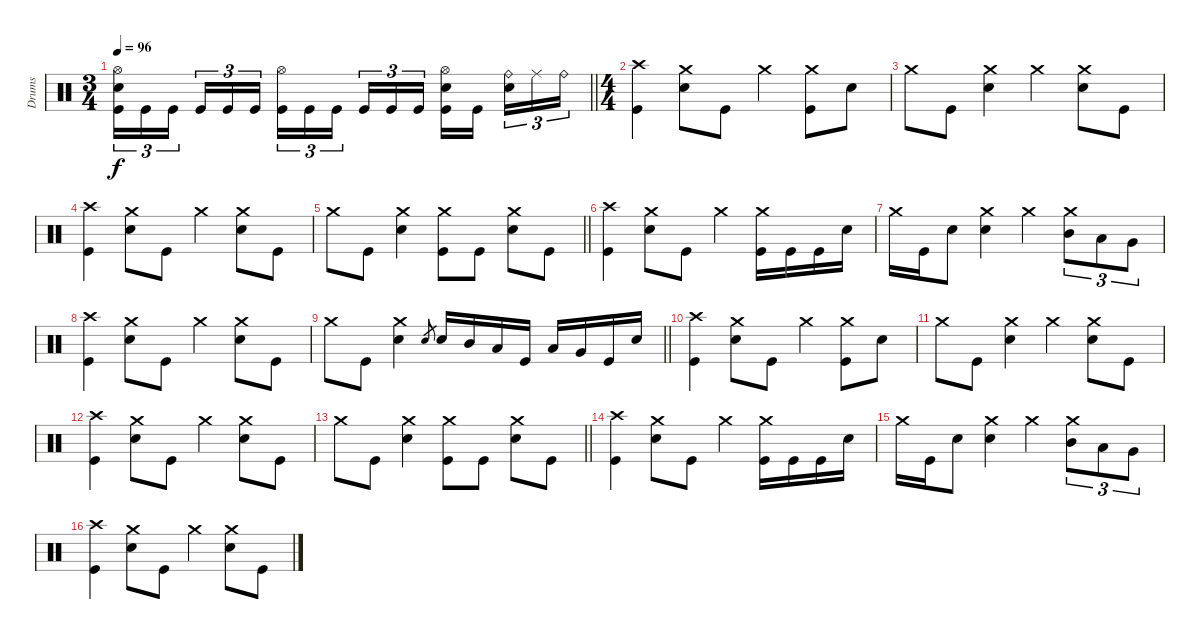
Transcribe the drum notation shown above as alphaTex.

\track ("Drums" "Drums") {instrument percussion}
\staff
\articulation defaults
\ts (3 4)
\tempo 96
\clef neutral
\barLineRight lightlight
\ks c
("Hi-Hat (open)" "Electric Snare (hit)" "Kick (hit)").16{tu (3 2) dy f} "Kick (hit)".16{tu (3 2)} "Kick (hit)".16{tu (3 2) beam splitsecondary} "Kick (hit)".16{tu (3 2)} "Kick (hit)".16{tu (3 2)} "Kick (hit)".16{tu (3 2)} ("Hi-Hat (open)" "Kick (hit)").16{tu (3 2)} "Kick (hit)".16{tu (3 2)} "Kick (hit)".16{tu (3 2) beam splitsecondary} "Kick (hit)".16{tu (3 2)} "Kick (hit)".16{tu (3 2)} "Kick (hit)".16{tu (3 2)} ("Hi-Hat (open)" "Electric Snare (hit)" "Kick (hit)").16 "Kick (hit)".16{beam splitsecondary} ("Ride (bell)" "Electric Snare (hit)").16{tu (3 2)} "Ride (middle)".16{tu (3 2)} "Ride (bell)".16{tu (3 2)} |
\ts (4 4)
\section ("" "")
("Crash high (hit)" "Kick (hit)").4 ("Crash medium (hit)" "Electric Snare (hit)").8 "Kick (hit)".8 "Crash medium (hit)".4 ("Crash medium (hit)" "Kick (hit)").8 "Electric Snare (hit)".8 |
"Crash medium (hit)".8 "Kick (hit)".8 ("Crash medium (hit)" "Electric Snare (hit)").4 "Crash medium (hit)".4 ("Crash medium (hit)" "Electric Snare (hit)").8 "Kick (hit)".8 |
("Crash high (hit)" "Kick (hit)").4 ("Crash medium (hit)" "Electric Snare (hit)").8 "Kick (hit)".8 "Crash medium (hit)".4 ("Crash medium (hit)" "Electric Snare (hit)").8 "Kick (hit)".8 |
\barLineRight lightlight "Crash medium (hit)".8 "Kick (hit)".8
("Crash medium (hit)" "Electric Snare (hit)").4 ("Crash medium (hit)" "Kick (hit)").8 "Kick (hit)".8 ("Crash medium (hit)" "Electric Snare (hit)").8 "Kick (hit)".8 |
("Crash high (hit)" "Kick (hit)").4 ("Crash medium (hit)" "Electric Snare (hit)").8 "Kick (hit)".8 "Crash medium (hit)".4 ("Crash medium (hit)" "Kick (hit)").16 "Kick (hit)".16 "Kick (hit)".16 "Electric Snare (hit)".16 |
"Crash medium (hit)".16 "Kick (hit)".16 "Electric Snare (hit)".8 ("Crash medium (hit)" "Electric Snare (hit)").4 "Crash medium (hit)".4 ("Crash medium (hit)" "Mid Tom (hit)").8{tu (3 2)} "Low Tom (hit)".8{tu (3 2)} "Very Low Tom (hit)".8{tu (3 2)} |
("Crash high (hit)" "Kick (hit)").4 ("Crash medium (hit)" "Electric Snare (hit)").8 "Kick (hit)".8 "Crash medium (hit)".4 ("Crash medium (hit)" "Electric Snare (hit)").8 "Kick (hit)".8 |
\barLineRight lightlight "Crash medium (hit)".8 "Kick (hit)".8
("Crash medium (hit)" "Electric Snare (hit)").4 "Electric Snare (hit)".8{gr} "Electric Snare (hit)".16 "Mid Tom (hit)".16 "Low Tom (hit)".16 "Kick (hit)".16 "Low Tom (hit)".16 "Very Low Tom (hit)".16 "Kick (hit)".16 "Electric Snare (hit)".16 |
("Crash high (hit)" "Kick (hit)").4 ("Crash medium (hit)" "Electric Snare (hit)").8 "Kick (hit)".8 "Crash medium (hit)".4 ("Crash medium (hit)" "Kick (hit)").8 "Electric Snare (hit)".8 |
"Crash medium (hit)".8 "Kick (hit)".8 ("Crash medium (hit)" "Electric Snare (hit)").4 "Crash medium (hit)".4 ("Crash medium (hit)" "Electric Snare (hit)").8 "Kick (hit)".8 |
("Crash high (hit)" "Kick (hit)").4 ("Crash medium (hit)" "Electric Snare (hit)").8 "Kick (hit)".8 "Crash medium (hit)".4 ("Crash medium (hit)" "Electric Snare (hit)").8 "Kick (hit)".8 |
\barLineRight lightlight "Crash medium (hit)".8 "Kick (hit)".8
("Crash medium (hit)" "Electric Snare (hit)").4 ("Crash medium (hit)" "Kick (hit)").8 "Kick (hit)".8 ("Crash medium (hit)" "Electric Snare (hit)").8 "Kick (hit)".8 |
("Crash high (hit)" "Kick (hit)").4 ("Crash medium (hit)" "Electric Snare (hit)").8 "Kick (hit)".8 "Crash medium (hit)".4 ("Crash medium (hit)" "Kick (hit)").16 "Kick (hit)".16 "Kick (hit)".16 "Electric Snare (hit)".16 |
"Crash medium (hit)".16 "Kick (hit)".16 "Electric Snare (hit)".8 ("Crash medium (hit)" "Electric Snare (hit)").4 "Crash medium (hit)".4 ("Crash medium (hit)" "Mid Tom (hit)").8{tu (3 2)} "Low Tom (hit)".8{tu (3 2)} "Very Low Tom (hit)".8{tu (3 2)} |
("Crash high (hit)" "Kick (hit)").4 ("Crash medium (hit)" "Electric Snare (hit)").8 "Kick (hit)".8 "Crash medium (hit)".4 ("Crash medium (hit)" "Electric Snare (hit)").8 "Kick (hit)".8
